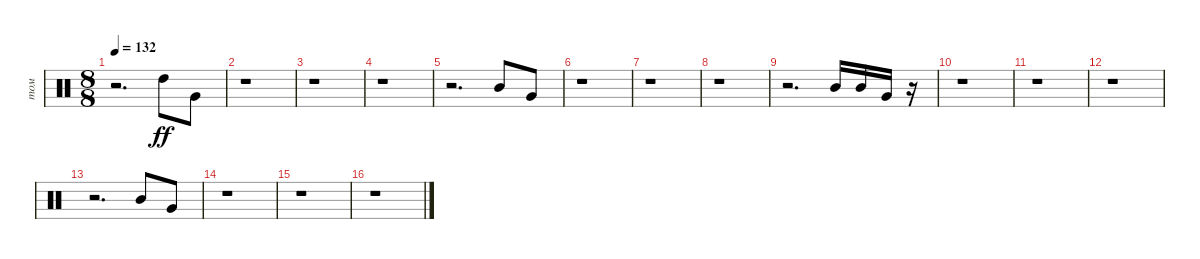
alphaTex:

\track ("том" "том") {instrument percussion}
\staff {score}
\articulation defaults
\ts (8 8)
\tempo 132
\clef neutral
\ks c
r.2{d dy ff} "High Tom (hit)".8 "Very Low Tom (hit)".8 |
r.1 |
r.1 |
r.1 |
r.2{d} "Mid Tom (hit)".8 "Very Low Tom (hit)".8 |
r.1 |
r.1 |
r.1 |
r.2{d} "Mid Tom (hit)".16 "Mid Tom (hit)".16 "Very Low Tom (hit)".16 r.16 |
r.1 |
r.1 |
r.1 |
r.2{d} "Mid Tom (hit)".8 "Very Low Tom (hit)".8 |
r.1 |
r.1 |
r.1
